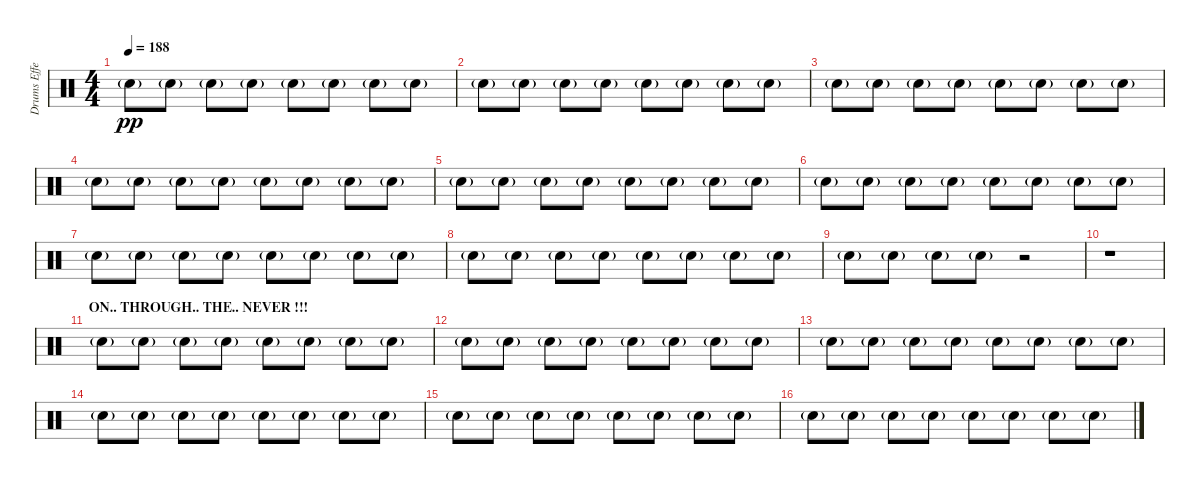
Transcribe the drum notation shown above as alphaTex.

\track ("Drums Effects" "Drums Effe") {instrument percussion}
\staff {score}
\articulation defaults
\ts (4 4)
\tempo 188
\clef neutral
\ks c "Snare (hit) 2"{g}.8{dy pp} "Snare (hit) 2"{g}.8 "Snare (hit) 2"{g}.8 "Snare (hit) 2"{g}.8 "Snare (hit) 2"{g}.8 "Snare (hit) 2"{g}.8 "Snare (hit) 2"{g}.8 "Snare (hit) 2"{g}.8
|
"Snare (hit) 2"{g}.8 "Snare (hit) 2"{g}.8 "Snare (hit) 2"{g}.8 "Snare (hit) 2"{g}.8 "Snare (hit) 2"{g}.8 "Snare (hit) 2"{g}.8 "Snare (hit) 2"{g}.8 "Snare (hit) 2"{g}.8 |
"Snare (hit) 2"{g}.8 "Snare (hit) 2"{g}.8 "Snare (hit) 2"{g}.8 "Snare (hit) 2"{g}.8 "Snare (hit) 2"{g}.8 "Snare (hit) 2"{g}.8 "Snare (hit) 2"{g}.8 "Snare (hit) 2"{g}.8 |
"Snare (hit) 2"{g}.8 "Snare (hit) 2"{g}.8 "Snare (hit) 2"{g}.8 "Snare (hit) 2"{g}.8 "Snare (hit) 2"{g}.8 "Snare (hit) 2"{g}.8 "Snare (hit) 2"{g}.8 "Snare (hit) 2"{g}.8 |
"Snare (hit) 2"{g}.8 "Snare (hit) 2"{g}.8 "Snare (hit) 2"{g}.8 "Snare (hit) 2"{g}.8 "Snare (hit) 2"{g}.8 "Snare (hit) 2"{g}.8 "Snare (hit) 2"{g}.8 "Snare (hit) 2"{g}.8 |
"Snare (hit) 2"{g}.8 "Snare (hit) 2"{g}.8 "Snare (hit) 2"{g}.8 "Snare (hit) 2"{g}.8 "Snare (hit) 2"{g}.8 "Snare (hit) 2"{g}.8 "Snare (hit) 2"{g}.8 "Snare (hit) 2"{g}.8 |
"Snare (hit) 2"{g}.8 "Snare (hit) 2"{g}.8 "Snare (hit) 2"{g}.8 "Snare (hit) 2"{g}.8 "Snare (hit) 2"{g}.8 "Snare (hit) 2"{g}.8 "Snare (hit) 2"{g}.8 "Snare (hit) 2"{g}.8 |
"Snare (hit) 2"{g}.8 "Snare (hit) 2"{g}.8 "Snare (hit) 2"{g}.8 "Snare (hit) 2"{g}.8 "Snare (hit) 2"{g}.8 "Snare (hit) 2"{g}.8 "Snare (hit) 2"{g}.8 "Snare (hit) 2"{g}.8 |
"Snare (hit) 2"{g}.8 "Snare (hit) 2"{g}.8 "Snare (hit) 2"{g}.8 "Snare (hit) 2"{g}.8 r.2 |
r.1 |
\section ("" "ON.. THROUGH.. THE.. NEVER !!!")
"Snare (hit) 2"{g}.8 "Snare (hit) 2"{g}.8 "Snare (hit) 2"{g}.8 "Snare (hit) 2"{g}.8 "Snare (hit) 2"{g}.8 "Snare (hit) 2"{g}.8 "Snare (hit) 2"{g}.8 "Snare (hit) 2"{g}.8 |
"Snare (hit) 2"{g}.8 "Snare (hit) 2"{g}.8 "Snare (hit) 2"{g}.8 "Snare (hit) 2"{g}.8 "Snare (hit) 2"{g}.8 "Snare (hit) 2"{g}.8 "Snare (hit) 2"{g}.8 "Snare (hit) 2"{g}.8 |
"Snare (hit) 2"{g}.8 "Snare (hit) 2"{g}.8 "Snare (hit) 2"{g}.8 "Snare (hit) 2"{g}.8 "Snare (hit) 2"{g}.8 "Snare (hit) 2"{g}.8 "Snare (hit) 2"{g}.8 "Snare (hit) 2"{g}.8 |
"Snare (hit) 2"{g}.8 "Snare (hit) 2"{g}.8 "Snare (hit) 2"{g}.8 "Snare (hit) 2"{g}.8 "Snare (hit) 2"{g}.8 "Snare (hit) 2"{g}.8 "Snare (hit) 2"{g}.8 "Snare (hit) 2"{g}.8 |
"Snare (hit) 2"{g}.8 "Snare (hit) 2"{g}.8 "Snare (hit) 2"{g}.8 "Snare (hit) 2"{g}.8 "Snare (hit) 2"{g}.8 "Snare (hit) 2"{g}.8 "Snare (hit) 2"{g}.8 "Snare (hit) 2"{g}.8 |
"Snare (hit) 2"{g}.8 "Snare (hit) 2"{g}.8 "Snare (hit) 2"{g}.8 "Snare (hit) 2"{g}.8 "Snare (hit) 2"{g}.8 "Snare (hit) 2"{g}.8 "Snare (hit) 2"{g}.8 "Snare (hit) 2"{g}.8
